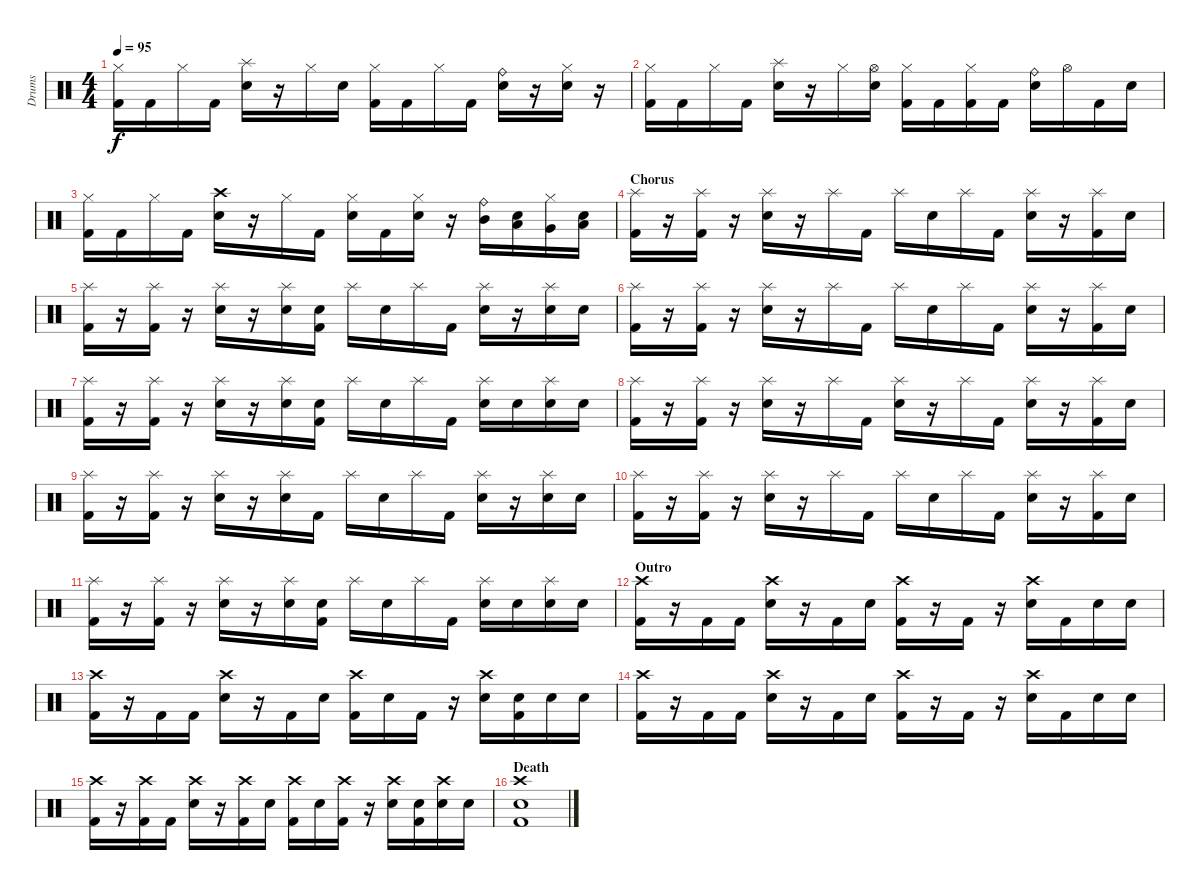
\track ("Drums" "Drums") {instrument percussion}
\staff {score}
\articulation defaults
\ts (4 4)
\tempo 95
\clef neutral
\ks c
("Hi-Hat (closed)" "Kick (hit) 2").16{dy f} "Kick (hit) 2".16 "Hi-Hat (closed)".16 "Kick (hit) 2".16 ("Electric Snare (hit)" "Splash (hit)").16 r.16 "Hi-Hat (closed)".16 "Electric Snare (hit)".16 ("Hi-Hat (closed)" "Kick (hit) 2").16 "Kick (hit) 2".16 "Hi-Hat (closed)".16 "Kick (hit) 2".16 ("Electric Snare (hit)" "Ride (bell)").16 r.16 ("Hi-Hat (closed)" "Electric Snare (hit)").16 r.16 |
("Hi-Hat (closed)" "Kick (hit) 2").16 "Kick (hit) 2".16 "Hi-Hat (closed)".16 "Kick (hit) 2".16 ("Electric Snare (hit)" "Splash (hit)").16 r.16 "Hi-Hat (closed)".16 ("Hi-Hat (open)" "Electric Snare (hit)").16 ("Hi-Hat (closed)" "Kick (hit) 2").16 "Kick (hit) 2".16 ("Hi-Hat (closed)" "Kick (hit) 2").16 "Kick (hit) 2".16 ("Electric Snare (hit)" "Ride (bell)").16 "Hi-Hat (open)".16 "Kick (hit) 2".16 "Electric Snare (hit)".16 |
("Hi-Hat (closed)" "Kick (hit) 2").16 "Kick (hit) 2".16 "Hi-Hat (closed)".16 "Kick (hit) 2".16 ("Electric Snare (hit)" "Crash high (hit)").16 r.16 "Hi-Hat (closed)".16 "Kick (hit) 2".16 ("Hi-Hat (closed)" "Electric Snare (hit)").16 "Kick (hit) 2".16 ("Hi-Hat (closed)" "Electric Snare (hit)"{tr (40 32)}).16 r.16 ("Mid Tom (hit)" "Ride (bell)").16 ("Low Tom (hit)" "Electric Snare (hit)").16 ("Hi-Hat (closed)" "Very Low Tom (hit)").16 ("Low Floor Tom (hit)" "Electric Snare (hit)").16 |
\section ("" "Chorus")
("Splash (hit)" "Kick (hit) 2").16 r.16 ("Splash (hit)" "Kick (hit) 2").16 r.16 ("Splash (hit)" "Electric Snare (hit)").16 r.16 "Splash (hit)".16 "Kick (hit) 2".16 "Splash (hit)".16 "Electric Snare (hit)".16 "Splash (hit)".16 "Kick (hit) 2".16 ("Splash (hit)" "Electric Snare (hit)").16 r.16 ("Splash (hit)" "Kick (hit) 2").16 "Electric Snare (hit)".16 |
("Splash (hit)" "Kick (hit) 2").16 r.16 ("Splash (hit)" "Kick (hit) 2").16 r.16 ("Splash (hit)" "Electric Snare (hit)").16 r.16 ("Splash (hit)" "Electric Snare (hit)").16 ("Kick (hit) 2" "Electric Snare (hit)").16 "Splash (hit)".16 "Electric Snare (hit)".16 "Splash (hit)".16 "Kick (hit) 2".16 ("Splash (hit)" "Electric Snare (hit)").16 r.16 ("Splash (hit)" "Electric Snare (hit)").16 "Electric Snare (hit)".16 |
("Splash (hit)" "Kick (hit) 2").16 r.16 ("Splash (hit)" "Kick (hit) 2").16 r.16 ("Splash (hit)" "Electric Snare (hit)").16 r.16 "Splash (hit)".16 "Kick (hit) 2".16 "Splash (hit)".16 "Electric Snare (hit)".16 "Splash (hit)".16 "Kick (hit) 2".16 ("Splash (hit)" "Electric Snare (hit)").16 r.16 ("Splash (hit)" "Kick (hit) 2").16 "Electric Snare (hit)".16 |
("Splash (hit)" "Kick (hit) 2").16 r.16 ("Splash (hit)" "Kick (hit) 2").16 r.16 ("Splash (hit)" "Electric Snare (hit)").16 r.16 ("Splash (hit)" "Electric Snare (hit)").16 ("Kick (hit) 2" "Electric Snare (hit)").16 "Splash (hit)".16 "Electric Snare (hit)".16 "Splash (hit)".16 "Kick (hit) 2".16 ("Splash (hit)" "Electric Snare (hit)").16 "Electric Snare (hit)".16 ("Splash (hit)" "Electric Snare (hit)").16 "Electric Snare (hit)".16 |
("Splash (hit)" "Kick (hit) 2").16 r.16 ("Splash (hit)" "Kick (hit) 2").16 r.16 ("Splash (hit)" "Electric Snare (hit)").16 r.16 "Splash (hit)".16 "Kick (hit) 2".16 ("Splash (hit)" "Electric Snare (hit)").16 r.16 "Splash (hit)".16 "Kick (hit) 2".16 ("Splash (hit)" "Electric Snare (hit)").16 r.16 ("Splash (hit)" "Kick (hit) 2").16 "Electric Snare (hit)".16 |
("Splash (hit)" "Kick (hit) 2").16 r.16 ("Splash (hit)" "Kick (hit) 2").16 r.16 ("Splash (hit)" "Electric Snare (hit)").16 r.16 ("Splash (hit)" "Electric Snare (hit)").16 "Kick (hit) 2".16 "Splash (hit)".16 "Electric Snare (hit)".16 "Splash (hit)".16 "Kick (hit) 2".16 ("Splash (hit)" "Electric Snare (hit)").16 r.16 ("Splash (hit)" "Electric Snare (hit)").16 "Electric Snare (hit)".16 |
("Splash (hit)" "Kick (hit) 2").16 r.16 ("Splash (hit)" "Kick (hit) 2").16 r.16 ("Splash (hit)" "Electric Snare (hit)").16 r.16 "Splash (hit)".16 "Kick (hit) 2".16 "Splash (hit)".16 "Electric Snare (hit)".16 "Splash (hit)".16 "Kick (hit) 2".16 ("Splash (hit)" "Electric Snare (hit)").16 r.16 ("Splash (hit)" "Kick (hit) 2").16 "Electric Snare (hit)".16 |
("Splash (hit)" "Kick (hit) 2").16 r.16 ("Splash (hit)" "Kick (hit) 2").16 r.16 ("Splash (hit)" "Electric Snare (hit)").16 r.16 ("Splash (hit)" "Electric Snare (hit)").16 ("Kick (hit) 2" "Electric Snare (hit)").16 "Splash (hit)".16 "Electric Snare (hit)".16 "Splash (hit)".16 "Kick (hit) 2".16 ("Splash (hit)" "Electric Snare (hit)").16 "Electric Snare (hit)".16 ("Splash (hit)" "Electric Snare (hit)").16 "Electric Snare (hit)".16 |
\section ("" "Outro")
("Crash high (hit)" "Kick (hit) 2").16 r.16 "Kick (hit) 2".16 "Kick (hit) 2".16 ("Crash high (hit)" "Electric Snare (hit)").16 r.16 "Kick (hit) 2".16 "Electric Snare (hit)".16 ("Crash high (hit)" "Kick (hit) 2").16 r.16 "Kick (hit) 2".16 r.16 ("Crash high (hit)" "Electric Snare (hit)").16 "Kick (hit) 2".16 "Electric Snare (hit)".16 "Electric Snare (hit)".16 |
("Crash high (hit)" "Kick (hit) 2").16 r.16 "Kick (hit) 2".16 "Kick (hit) 2".16 ("Crash high (hit)" "Electric Snare (hit)").16 r.16 "Kick (hit) 2".16 "Electric Snare (hit)".16 ("Crash high (hit)" "Kick (hit) 2").16 "Electric Snare (hit)".16 "Kick (hit) 2".16 r.16 ("Crash high (hit)" "Electric Snare (hit)").16 ("Kick (hit) 2" "Electric Snare (hit)").16 "Electric Snare (hit)".16 "Electric Snare (hit)".16 |
("Crash high (hit)" "Kick (hit) 2").16 r.16 "Kick (hit) 2".16 "Kick (hit) 2".16 ("Crash high (hit)" "Electric Snare (hit)").16 r.16 "Kick (hit) 2".16 "Electric Snare (hit)".16 ("Crash high (hit)" "Kick (hit) 2").16 r.16 "Kick (hit) 2".16 r.16 ("Crash high (hit)" "Electric Snare (hit)").16 "Kick (hit) 2".16 "Electric Snare (hit)".16 "Electric Snare (hit)".16 |
("Crash high (hit)" "Kick (hit) 2").16 r.16 ("Crash high (hit)" "Kick (hit) 2").16 "Kick (hit) 2".16 ("Crash high (hit)" "Electric Snare (hit)").16 r.16 ("Crash high (hit)" "Kick (hit) 2").16 "Electric Snare (hit)".16 ("Crash high (hit)" "Kick (hit) 2").16 "Electric Snare (hit)".16 ("Crash high (hit)" "Kick (hit) 2").16 r.16 ("Crash high (hit)" "Electric Snare (hit)").16 ("Kick (hit) 2" "Electric Snare (hit)").16 ("Crash high (hit)" "Electric Snare (hit)").16 "Electric Snare (hit)".16 |
\section ("" "Death")
("Crash high (hit)" "Kick (hit) 2" "Electric Snare (hit)").1
